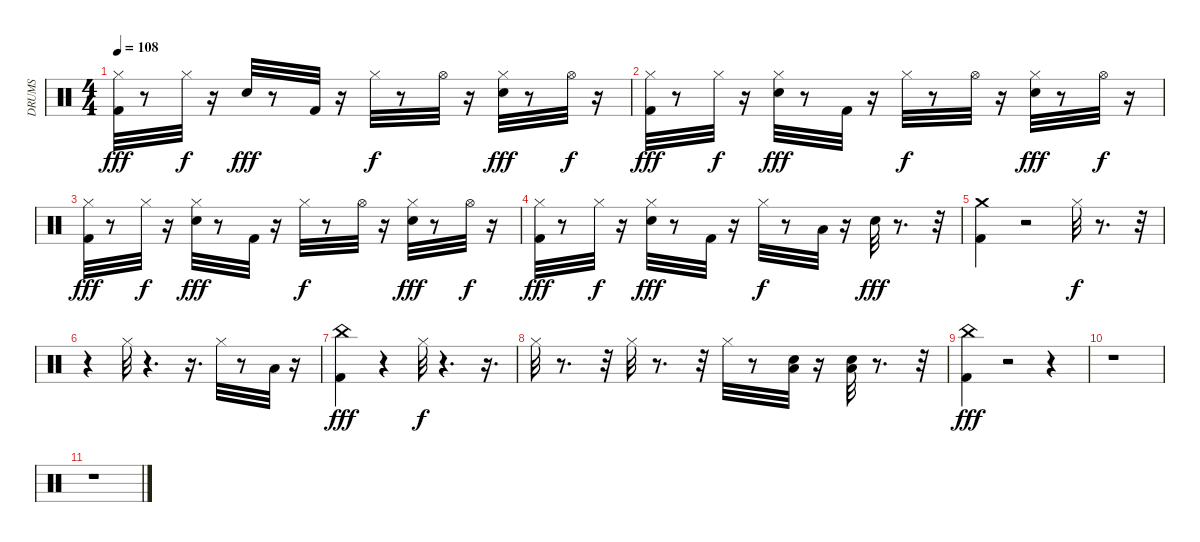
\track ("DRUMS" "DRUMS") {instrument percussion}
\staff {score}
\articulation defaults
\ts (4 4)
\tempo 108
\clef neutral
\ks c
("Hi-Hat (closed)" "Kick (hit) 2").32{dy fff} r.8 "Hi-Hat (closed)".32{dy f} r.16 "Snare (hit) 2".32{dy fff} r.8 "Kick (hit) 2".32 r.16 "Hi-Hat (closed)".32{dy f} r.8 "Hi-Hat (open)".32 r.16 ("Hi-Hat (closed)" "Snare (hit) 2").32{dy fff} r.8 "Hi-Hat (open)".32{dy f} r.16 |
("Hi-Hat (closed)" "Kick (hit) 2").32{dy fff} r.8 "Hi-Hat (closed)".32{dy f} r.16 ("Hi-Hat (closed)" "Snare (hit) 2").32{dy fff} r.8 "Kick (hit) 2".32 r.16 "Hi-Hat (closed)".32{dy f} r.8 "Hi-Hat (open)".32 r.16 ("Hi-Hat (closed)" "Snare (hit) 2").32{dy fff} r.8 "Hi-Hat (open)".32{dy f} r.16 |
("Hi-Hat (closed)" "Kick (hit) 2").32{dy fff} r.8 "Hi-Hat (closed)".32{dy f} r.16 ("Hi-Hat (closed)" "Snare (hit) 2").32{dy fff} r.8 "Kick (hit) 2".32 r.16 "Hi-Hat (closed)".32{dy f} r.8 "Hi-Hat (open)".32 r.16 ("Hi-Hat (closed)" "Snare (hit) 2").32{dy fff} r.8 "Hi-Hat (open)".32{dy f} r.16 |
("Hi-Hat (closed)" "Kick (hit) 2").32{dy fff} r.8 "Hi-Hat (closed)".32{dy f} r.16 ("Hi-Hat (closed)" "Snare (hit) 2").32{dy fff} r.8 "Kick (hit) 2".32 r.16 "Hi-Hat (closed)".32{dy f} r.8 "Low Tom (hit)".32 r.16 "Snare (hit) 2".32{dy fff} r.8{d} r.32 |
("Crash medium (hit)" "Kick (hit) 2").4 r.2 "Hi-Hat (closed)".32{dy f} r.8{d} r.32 |
r.4 "Hi-Hat (closed)".32 r.4{d} r.16{d} "Hi-Hat (closed)".32 r.8 "Low Floor Tom (hit)".32 r.16 |
("China (hit)" "Kick (hit) 2").4{dy fff} r.4 "Hi-Hat (closed)".32{dy f} r.4{d} r.16{d} |
"Hi-Hat (closed)".32 r.8{d} r.32 "Hi-Hat (closed)".32 r.8{d} r.32 "Hi-Hat (closed)".32 r.8 ("Snare (hit) 2" "Low Floor Tom (hit)").32 r.16 ("Snare (hit) 2" "Low Tom (hit)").32 r.8{d} r.32 |
("China (hit)" "Kick (hit) 2").4{dy fff} r.2 r.4 |
r.1 |
r.1
